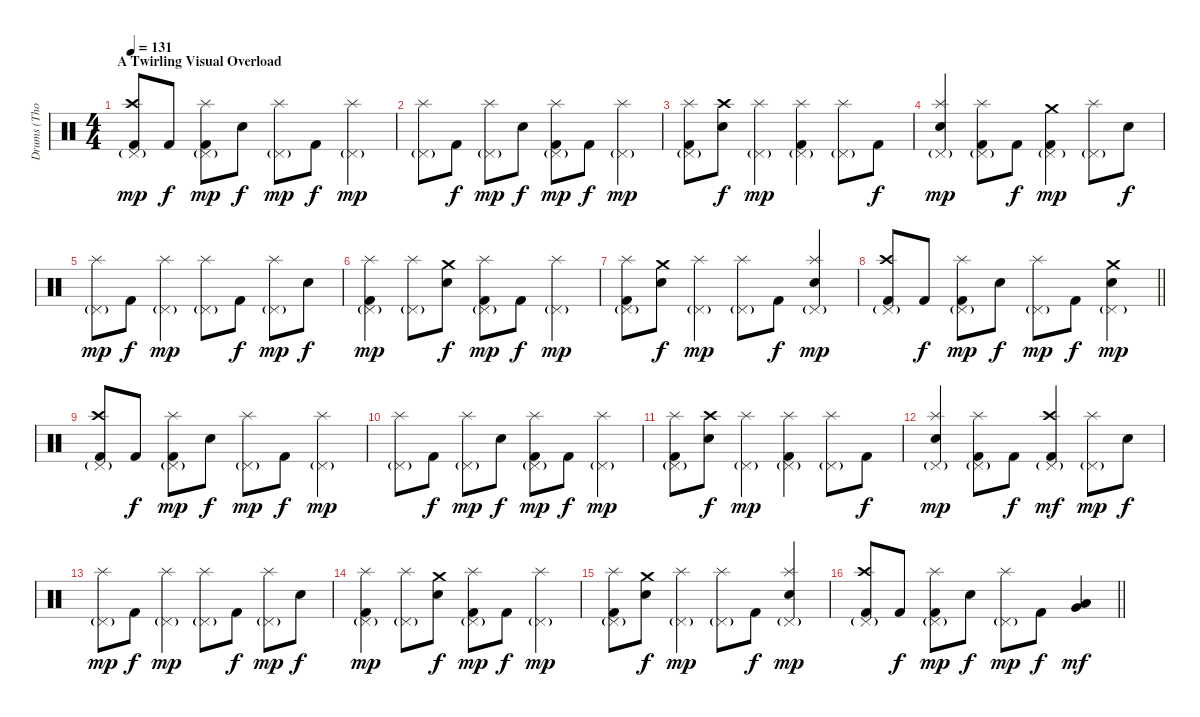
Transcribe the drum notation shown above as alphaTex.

\track ("Drums (Thomas Haake)" "Drums (Tho") {instrument percussion}
\staff {score}
\articulation defaults
\ts (4 4)
\section ("" "A Twirling Visual Overload")
\tempo 131
\clef neutral
\ks c
("Pedal Hi-Hat (hit)"{g} "Crash high (hit)" "Kick (hit) 2").8{dy mp} "Kick (hit) 2".8{dy f} ("Pedal Hi-Hat (hit)"{g} "Splash (hit)" "Kick (hit) 2").8{dy mp} "Electric Snare (hit)".8{dy f} ("Pedal Hi-Hat (hit)"{g} "Splash (hit)").8{dy mp} "Kick (hit) 2".8{dy f} ("Pedal Hi-Hat (hit)"{g} "Splash (hit)").4{dy mp} |
("Pedal Hi-Hat (hit)"{g} "Splash (hit)").8 "Kick (hit) 2".8{dy f} ("Pedal Hi-Hat (hit)"{g} "Splash (hit)").8{dy mp} "Electric Snare (hit)".8{dy f} ("Pedal Hi-Hat (hit)"{g} "Splash (hit)" "Kick (hit) 2").8{dy mp} "Kick (hit) 2".8{dy f} ("Pedal Hi-Hat (hit)"{g} "Splash (hit)").4{dy mp} |
("Pedal Hi-Hat (hit)"{g} "Splash (hit)" "Kick (hit) 2").8 ("Crash high (hit)" "Electric Snare (hit)").8{dy f} ("Pedal Hi-Hat (hit)"{g} "Splash (hit)").4{dy mp} ("Pedal Hi-Hat (hit)"{g} "Splash (hit)" "Kick (hit) 2").4 ("Pedal Hi-Hat (hit)"{g} "Splash (hit)").8 "Kick (hit) 2".8{dy f} |
("Pedal Hi-Hat (hit)"{g} "Splash (hit)" "Electric Snare (hit)").4{dy mp} ("Pedal Hi-Hat (hit)"{g} "Splash (hit)" "Kick (hit) 2").8 "Kick (hit) 2".8{dy f} ("Pedal Hi-Hat (hit)"{g} "Crash medium (hit)" "Kick (hit) 2").4{dy mp} ("Pedal Hi-Hat (hit)"{g} "Splash (hit)").8 "Electric Snare (hit)".8{dy f} |
("Pedal Hi-Hat (hit)"{g} "Splash (hit)").8{dy mp} "Kick (hit) 2".8{dy f} ("Pedal Hi-Hat (hit)"{g} "Splash (hit)").4{dy mp} ("Pedal Hi-Hat (hit)"{g} "Splash (hit)").8 "Kick (hit) 2".8{dy f} ("Pedal Hi-Hat (hit)"{g} "Splash (hit)").8{dy mp} "Electric Snare (hit)".8{dy f} |
("Pedal Hi-Hat (hit)"{g} "Splash (hit)" "Kick (hit) 2").4{dy mp} ("Pedal Hi-Hat (hit)"{g} "Splash (hit)").8 ("Crash medium (hit)" "Electric Snare (hit)").8{dy f} ("Pedal Hi-Hat (hit)"{g} "Splash (hit)" "Kick (hit) 2").8{dy mp} "Kick (hit) 2".8{dy f} ("Pedal Hi-Hat (hit)"{g} "Splash (hit)").4{dy mp} |
("Pedal Hi-Hat (hit)"{g} "Splash (hit)" "Kick (hit) 2").8 ("Crash medium (hit)" "Electric Snare (hit)").8{dy f} ("Pedal Hi-Hat (hit)"{g} "Splash (hit)").4{dy mp} ("Pedal Hi-Hat (hit)"{g} "Splash (hit)").8 "Kick (hit) 2".8{dy f} ("Pedal Hi-Hat (hit)"{g} "Splash (hit)" "Electric Snare (hit)").4{dy mp} |
\barLineRight lightlight
("Pedal Hi-Hat (hit)"{g} "Crash high (hit)" "Kick (hit) 2").8 "Kick (hit) 2".8{dy f} ("Pedal Hi-Hat (hit)"{g} "Splash (hit)" "Kick (hit) 2").8{dy mp} "Electric Snare (hit)".8{dy f} ("Pedal Hi-Hat (hit)"{g} "Splash (hit)").8{dy mp} "Kick (hit) 2".8{dy f} ("Pedal Hi-Hat (hit)"{g} "Crash medium (hit)" "Electric Snare (hit)").4{dy mp} |
("Pedal Hi-Hat (hit)"{g} "Crash high (hit)" "Kick (hit) 2").8 "Kick (hit) 2".8{dy f} ("Pedal Hi-Hat (hit)"{g} "Splash (hit)" "Kick (hit) 2").8{dy mp} "Electric Snare (hit)".8{dy f} ("Pedal Hi-Hat (hit)"{g} "Splash (hit)").8{dy mp} "Kick (hit) 2".8{dy f} ("Pedal Hi-Hat (hit)"{g} "Splash (hit)").4{dy mp} |
("Pedal Hi-Hat (hit)"{g} "Splash (hit)").8 "Kick (hit) 2".8{dy f} ("Pedal Hi-Hat (hit)"{g} "Splash (hit)").8{dy mp} "Electric Snare (hit)".8{dy f} ("Pedal Hi-Hat (hit)"{g} "Splash (hit)" "Kick (hit) 2").8{dy mp} "Kick (hit) 2".8{dy f} ("Pedal Hi-Hat (hit)"{g} "Splash (hit)").4{dy mp} |
("Pedal Hi-Hat (hit)"{g} "Splash (hit)" "Kick (hit) 2").8 ("Crash high (hit)" "Electric Snare (hit)").8{dy f} ("Pedal Hi-Hat (hit)"{g} "Splash (hit)").4{dy mp} ("Pedal Hi-Hat (hit)"{g} "Splash (hit)" "Kick (hit) 2").4 ("Pedal Hi-Hat (hit)"{g} "Splash (hit)").8 "Kick (hit) 2".8{dy f} |
("Pedal Hi-Hat (hit)"{g} "Splash (hit)" "Electric Snare (hit)").4{dy mp} ("Pedal Hi-Hat (hit)"{g} "Splash (hit)" "Kick (hit) 2").8 "Kick (hit) 2".8{dy f} ("Pedal Hi-Hat (hit)"{g} "Crash high (hit)" "Kick (hit) 2").4{dy mf} ("Pedal Hi-Hat (hit)"{g} "Splash (hit)").8{dy mp} "Electric Snare (hit)".8{dy f} |
("Pedal Hi-Hat (hit)"{g} "Splash (hit)").8{dy mp} "Kick (hit) 2".8{dy f} ("Pedal Hi-Hat (hit)"{g} "Splash (hit)").4{dy mp} ("Pedal Hi-Hat (hit)"{g} "Splash (hit)").8 "Kick (hit) 2".8{dy f} ("Pedal Hi-Hat (hit)"{g} "Splash (hit)").8{dy mp} "Electric Snare (hit)".8{dy f} |
("Pedal Hi-Hat (hit)"{g} "Splash (hit)" "Kick (hit) 2").4{dy mp} ("Pedal Hi-Hat (hit)"{g} "Splash (hit)").8 ("Crash medium (hit)" "Electric Snare (hit)").8{dy f} ("Pedal Hi-Hat (hit)"{g} "Splash (hit)" "Kick (hit) 2").8{dy mp} "Kick (hit) 2".8{dy f} ("Pedal Hi-Hat (hit)"{g} "Splash (hit)").4{dy mp} |
("Pedal Hi-Hat (hit)"{g} "Splash (hit)" "Kick (hit) 2").8 ("Crash medium (hit)" "Electric Snare (hit)").8{dy f} ("Pedal Hi-Hat (hit)"{g} "Splash (hit)").4{dy mp} ("Pedal Hi-Hat (hit)"{g} "Splash (hit)").8 "Kick (hit) 2".8{dy f} ("Pedal Hi-Hat (hit)"{g} "Splash (hit)" "Electric Snare (hit)").4{dy mp} |
\barLineRight lightlight
("Pedal Hi-Hat (hit)"{g} "Crash high (hit)" "Kick (hit) 2").8 "Kick (hit) 2".8{dy f} ("Pedal Hi-Hat (hit)"{g} "Splash (hit)" "Kick (hit) 2").8{dy mp} "Electric Snare (hit)".8{dy f} ("Pedal Hi-Hat (hit)"{g} "Splash (hit)").8{dy mp} "Kick (hit) 2".8{dy f} ("Very Low Tom (hit)" "Low Floor Tom (hit)").4{bd 60 dy mf}
